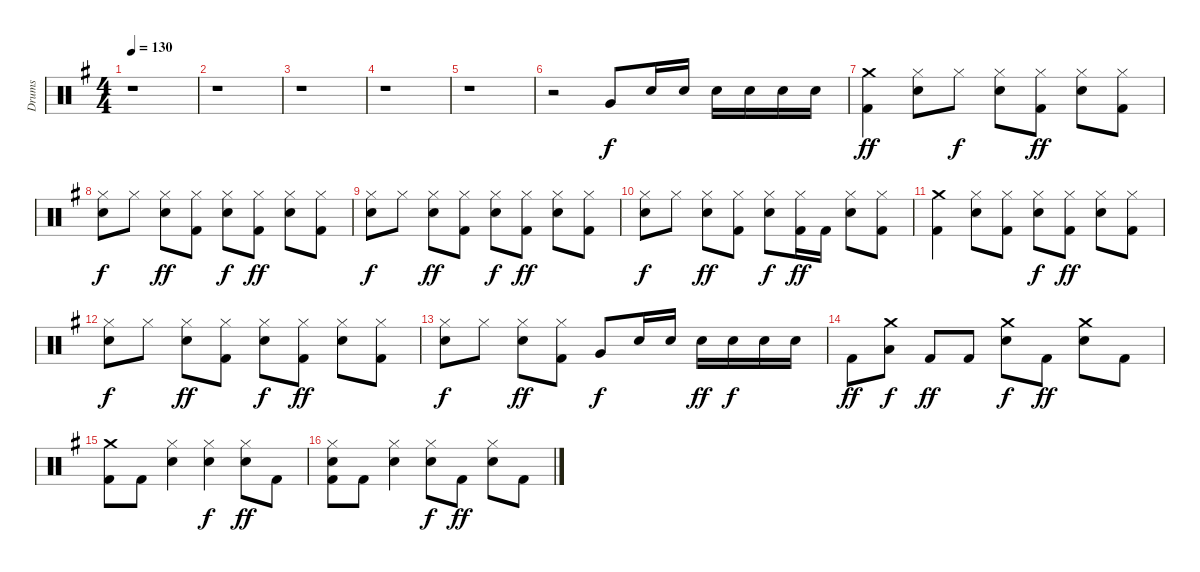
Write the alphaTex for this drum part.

\track ("Drums" "Drums") {instrument percussion}
\staff {score}
\articulation defaults
\ts (4 4)
\tempo 130
\clef neutral
\ks g
r.1{dy f} |
r.1 |
r.1 |
r.1 |
r.1 |
r.2 "Very Low Tom (hit)".8 "Snare (hit) 2".16 "Snare (hit) 2".16 "Snare (hit) 2".16 "Snare (hit) 2".16 "Snare (hit) 2".16 "Snare (hit) 2".16 |
("Kick (hit) 2" "Crash medium (hit)").4{dy ff} ("Hi-Hat (closed)" "Snare (hit) 2").8 "Hi-Hat (closed)".8{dy f} ("Hi-Hat (closed)" "Snare (hit) 2").8 ("Kick (hit) 2" "Hi-Hat (closed)").8{dy ff} ("Snare (hit) 2" "Hi-Hat (closed)").8 ("Kick (hit) 2" "Hi-Hat (closed)").8 |
("Snare (hit) 2" "Hi-Hat (closed)").8{dy f} "Hi-Hat (closed)".8 ("Snare (hit) 2" "Hi-Hat (closed)").8{dy ff} ("Kick (hit) 2" "Hi-Hat (closed)").8 ("Snare (hit) 2" "Hi-Hat (closed)").8{dy f} ("Kick (hit) 2" "Hi-Hat (closed)").8{dy ff} ("Snare (hit) 2" "Hi-Hat (closed)").8 ("Kick (hit) 2" "Hi-Hat (closed)").8 |
("Snare (hit) 2" "Hi-Hat (closed)").8{dy f} "Hi-Hat (closed)".8 ("Snare (hit) 2" "Hi-Hat (closed)").8{dy ff} ("Kick (hit) 2" "Hi-Hat (closed)").8 ("Snare (hit) 2" "Hi-Hat (closed)").8{dy f} ("Kick (hit) 2" "Hi-Hat (closed)").8{dy ff} ("Snare (hit) 2" "Hi-Hat (closed)").8 ("Kick (hit) 2" "Hi-Hat (closed)").8 |
("Snare (hit) 2" "Hi-Hat (closed)").8{dy f} "Hi-Hat (closed)".8 ("Snare (hit) 2" "Hi-Hat (closed)").8{dy ff} ("Kick (hit) 2" "Hi-Hat (closed)").8 ("Snare (hit) 2" "Hi-Hat (closed)").8{dy f} ("Kick (hit) 2" "Hi-Hat (closed)").16{dy ff} "Kick (hit) 2".16 ("Snare (hit) 2" "Hi-Hat (closed)").8 ("Kick (hit) 2" "Hi-Hat (closed)").8 |
("Kick (hit) 2" "Crash medium (hit)").4 ("Snare (hit) 2" "Hi-Hat (closed)").8 ("Kick (hit) 2" "Hi-Hat (closed)").8 ("Snare (hit) 2" "Hi-Hat (closed)").8{dy f} ("Kick (hit) 2" "Hi-Hat (closed)").8{dy ff} ("Snare (hit) 2" "Hi-Hat (closed)").8 ("Kick (hit) 2" "Hi-Hat (closed)").8 |
("Snare (hit) 2" "Hi-Hat (closed)").8{dy f} "Hi-Hat (closed)".8 ("Snare (hit) 2" "Hi-Hat (closed)").8{dy ff} ("Kick (hit) 2" "Hi-Hat (closed)").8 ("Snare (hit) 2" "Hi-Hat (closed)").8{dy f} ("Kick (hit) 2" "Hi-Hat (closed)").8{dy ff} ("Snare (hit) 2" "Hi-Hat (closed)").8 ("Kick (hit) 2" "Hi-Hat (closed)").8 |
("Snare (hit) 2" "Hi-Hat (closed)").8{dy f} "Hi-Hat (closed)".8 ("Snare (hit) 2" "Hi-Hat (closed)").8{dy ff} ("Kick (hit) 2" "Hi-Hat (closed)").8 "Very Low Tom (hit)".8{dy f} "Snare (hit) 2".16 "Snare (hit) 2".16 "Snare (hit) 2".16{dy ff} "Snare (hit) 2".16{dy f} "Snare (hit) 2".16 "Snare (hit) 2".16 |
"Kick (hit) 2".8{dy ff} ("Crash medium (hit)" "Low Tom (hit)").8{dy f} "Kick (hit) 2".8{dy ff} "Kick (hit) 2".8 ("Snare (hit) 2" "Crash medium (hit)").8{dy f} "Kick (hit) 2".8{dy ff} ("Snare (hit) 2" "Crash medium (hit)").8 "Kick (hit) 2".8 |
("Kick (hit) 2" "Crash medium (hit)").8 "Kick (hit) 2".8 ("Snare (hit) 2" "Hi-Hat (closed)").4 ("Snare (hit) 2" "Hi-Hat (closed)").4{dy f} ("Snare (hit) 2" "Hi-Hat (closed)").8{dy ff} "Kick (hit) 2".8 |
("Kick (hit) 2" "Snare (hit) 2" "Hi-Hat (closed)").8 "Kick (hit) 2".8 ("Snare (hit) 2" "Hi-Hat (closed)").4 ("Snare (hit) 2" "Hi-Hat (closed)").8{dy f} "Kick (hit) 2".8{dy ff} ("Snare (hit) 2" "Hi-Hat (closed)").8 "Kick (hit) 2".8
